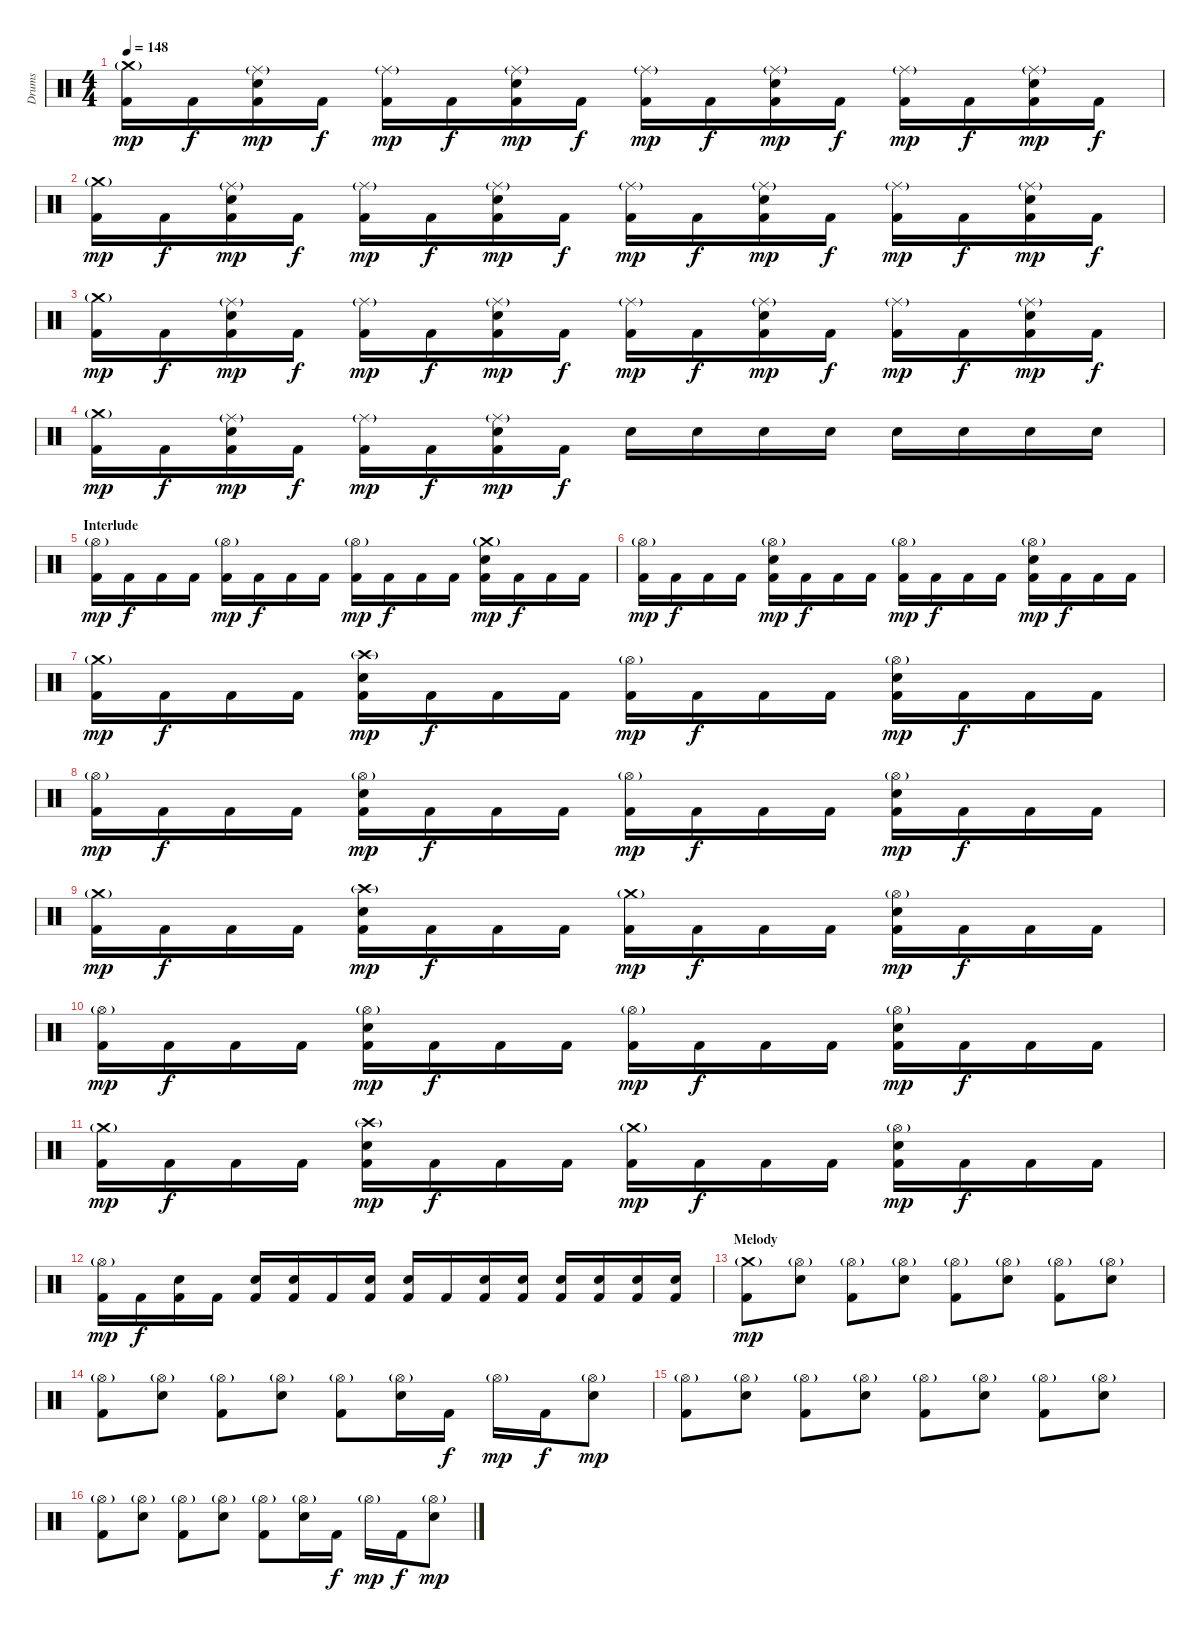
\track ("Drums" "Drums") {instrument percussion}
\staff {score}
\articulation defaults
\ts (4 4)
\tempo 148
\clef neutral
\ks c
("Crash medium (hit)"{g} "Kick (hit) 2").16{dy mp} "Kick (hit) 2".16{dy f} ("Ride (middle)"{g} "Snare (hit) 2" "Kick (hit) 2").16{dy mp} "Kick (hit) 2".16{dy f} ("Ride (middle)"{g} "Kick (hit) 2").16{dy mp} "Kick (hit) 2".16{dy f} ("Ride (middle)"{g} "Snare (hit) 2" "Kick (hit) 2").16{dy mp} "Kick (hit) 2".16{dy f} ("Ride (middle)"{g} "Kick (hit) 2").16{dy mp} "Kick (hit) 2".16{dy f} ("Ride (middle)"{g} "Snare (hit) 2" "Kick (hit) 2").16{dy mp} "Kick (hit) 2".16{dy f} ("Ride (middle)"{g} "Kick (hit) 2").16{dy mp} "Kick (hit) 2".16{dy f} ("Ride (middle)"{g} "Snare (hit) 2" "Kick (hit) 2").16{dy mp} "Kick (hit) 2".16{dy f} |
("Crash medium (hit)"{g} "Kick (hit) 2").16{dy mp} "Kick (hit) 2".16{dy f} ("Ride (middle)"{g} "Snare (hit) 2" "Kick (hit) 2").16{dy mp} "Kick (hit) 2".16{dy f} ("Ride (middle)"{g} "Kick (hit) 2").16{dy mp} "Kick (hit) 2".16{dy f} ("Ride (middle)"{g} "Snare (hit) 2" "Kick (hit) 2").16{dy mp} "Kick (hit) 2".16{dy f} ("Ride (middle)"{g} "Kick (hit) 2").16{dy mp} "Kick (hit) 2".16{dy f} ("Ride (middle)"{g} "Snare (hit) 2" "Kick (hit) 2").16{dy mp} "Kick (hit) 2".16{dy f} ("Ride (middle)"{g} "Kick (hit) 2").16{dy mp} "Kick (hit) 2".16{dy f} ("Ride (middle)"{g} "Snare (hit) 2" "Kick (hit) 2").16{dy mp} "Kick (hit) 2".16{dy f} |
("Crash medium (hit)"{g} "Kick (hit) 2").16{dy mp} "Kick (hit) 2".16{dy f} ("Ride (middle)"{g} "Snare (hit) 2" "Kick (hit) 2").16{dy mp} "Kick (hit) 2".16{dy f} ("Ride (middle)"{g} "Kick (hit) 2").16{dy mp} "Kick (hit) 2".16{dy f} ("Ride (middle)"{g} "Snare (hit) 2" "Kick (hit) 2").16{dy mp} "Kick (hit) 2".16{dy f} ("Ride (middle)"{g} "Kick (hit) 2").16{dy mp} "Kick (hit) 2".16{dy f} ("Ride (middle)"{g} "Snare (hit) 2" "Kick (hit) 2").16{dy mp} "Kick (hit) 2".16{dy f} ("Ride (middle)"{g} "Kick (hit) 2").16{dy mp} "Kick (hit) 2".16{dy f} ("Ride (middle)"{g} "Snare (hit) 2" "Kick (hit) 2").16{dy mp} "Kick (hit) 2".16{dy f} |
("Crash medium (hit)"{g} "Kick (hit) 2").16{dy mp} "Kick (hit) 2".16{dy f} ("Ride (middle)"{g} "Snare (hit) 2" "Kick (hit) 2").16{dy mp} "Kick (hit) 2".16{dy f} ("Ride (middle)"{g} "Kick (hit) 2").16{dy mp} "Kick (hit) 2".16{dy f} ("Ride (middle)"{g} "Snare (hit) 2" "Kick (hit) 2").16{dy mp} "Kick (hit) 2".16{dy f} "Snare (hit) 2".16 "Snare (hit) 2".16 "Snare (hit) 2".16 "Snare (hit) 2".16 "Snare (hit) 2".16 "Snare (hit) 2".16 "Snare (hit) 2".16 "Snare (hit) 2".16 |
\section ("" "Interlude")
("Hi-Hat (open)"{g} "Kick (hit) 2").16{dy mp} "Kick (hit) 2".16{dy f} "Kick (hit) 2".16 "Kick (hit) 2".16 ("Hi-Hat (open)"{g} "Kick (hit) 2").16{dy mp} "Kick (hit) 2".16{dy f} "Kick (hit) 2".16 "Kick (hit) 2".16 ("Hi-Hat (open)"{g} "Kick (hit) 2").16{dy mp} "Kick (hit) 2".16{dy f} "Kick (hit) 2".16 "Kick (hit) 2".16 ("Crash medium (hit)"{g} "Snare (hit) 2" "Kick (hit) 2").16{dy mp} "Kick (hit) 2".16{dy f} "Kick (hit) 2".16 "Kick (hit) 2".16 |
("Hi-Hat (open)"{g} "Kick (hit) 2").16{dy mp} "Kick (hit) 2".16{dy f} "Kick (hit) 2".16 "Kick (hit) 2".16 ("Hi-Hat (open)"{g} "Snare (hit) 2" "Kick (hit) 2").16{dy mp} "Kick (hit) 2".16{dy f} "Kick (hit) 2".16 "Kick (hit) 2".16 ("Hi-Hat (open)"{g} "Kick (hit) 2").16{dy mp} "Kick (hit) 2".16{dy f} "Kick (hit) 2".16 "Kick (hit) 2".16 ("Hi-Hat (open)"{g} "Snare (hit) 2" "Kick (hit) 2").16{dy mp} "Kick (hit) 2".16{dy f} "Kick (hit) 2".16 "Kick (hit) 2".16 |
("Crash medium (hit)"{g} "Kick (hit) 2").16{dy mp} "Kick (hit) 2".16{dy f} "Kick (hit) 2".16 "Kick (hit) 2".16 ("Crash high (hit)"{g} "Snare (hit) 2" "Kick (hit) 2").16{dy mp} "Kick (hit) 2".16{dy f} "Kick (hit) 2".16 "Kick (hit) 2".16 ("Hi-Hat (open)"{g} "Kick (hit) 2").16{dy mp} "Kick (hit) 2".16{dy f} "Kick (hit) 2".16 "Kick (hit) 2".16 ("Hi-Hat (open)"{g} "Snare (hit) 2" "Kick (hit) 2").16{dy mp} "Kick (hit) 2".16{dy f} "Kick (hit) 2".16 "Kick (hit) 2".16 |
("Hi-Hat (open)"{g} "Kick (hit) 2").16{dy mp} "Kick (hit) 2".16{dy f} "Kick (hit) 2".16 "Kick (hit) 2".16 ("Hi-Hat (open)"{g} "Snare (hit) 2" "Kick (hit) 2").16{dy mp} "Kick (hit) 2".16{dy f} "Kick (hit) 2".16 "Kick (hit) 2".16 ("Hi-Hat (open)"{g} "Kick (hit) 2").16{dy mp} "Kick (hit) 2".16{dy f} "Kick (hit) 2".16 "Kick (hit) 2".16 ("Hi-Hat (open)"{g} "Snare (hit) 2" "Kick (hit) 2").16{dy mp} "Kick (hit) 2".16{dy f} "Kick (hit) 2".16 "Kick (hit) 2".16 |
("Crash medium (hit)"{g} "Kick (hit) 2").16{dy mp} "Kick (hit) 2".16{dy f} "Kick (hit) 2".16 "Kick (hit) 2".16 ("Crash high (hit)"{g} "Snare (hit) 2" "Kick (hit) 2").16{dy mp} "Kick (hit) 2".16{dy f} "Kick (hit) 2".16 "Kick (hit) 2".16 ("Crash medium (hit)"{g} "Kick (hit) 2").16{dy mp} "Kick (hit) 2".16{dy f} "Kick (hit) 2".16 "Kick (hit) 2".16 ("Hi-Hat (open)"{g} "Snare (hit) 2" "Kick (hit) 2").16{dy mp} "Kick (hit) 2".16{dy f} "Kick (hit) 2".16 "Kick (hit) 2".16 |
("Hi-Hat (open)"{g} "Kick (hit) 2").16{dy mp} "Kick (hit) 2".16{dy f} "Kick (hit) 2".16 "Kick (hit) 2".16 ("Hi-Hat (open)"{g} "Snare (hit) 2" "Kick (hit) 2").16{dy mp} "Kick (hit) 2".16{dy f} "Kick (hit) 2".16 "Kick (hit) 2".16 ("Hi-Hat (open)"{g} "Kick (hit) 2").16{dy mp} "Kick (hit) 2".16{dy f} "Kick (hit) 2".16 "Kick (hit) 2".16 ("Hi-Hat (open)"{g} "Snare (hit) 2" "Kick (hit) 2").16{dy mp} "Kick (hit) 2".16{dy f} "Kick (hit) 2".16 "Kick (hit) 2".16 |
("Crash medium (hit)"{g} "Kick (hit) 2").16{dy mp} "Kick (hit) 2".16{dy f} "Kick (hit) 2".16 "Kick (hit) 2".16 ("Crash high (hit)"{g} "Snare (hit) 2" "Kick (hit) 2").16{dy mp} "Kick (hit) 2".16{dy f} "Kick (hit) 2".16 "Kick (hit) 2".16 ("Crash medium (hit)"{g} "Kick (hit) 2").16{dy mp} "Kick (hit) 2".16{dy f} "Kick (hit) 2".16 "Kick (hit) 2".16 ("Hi-Hat (open)"{g} "Snare (hit) 2" "Kick (hit) 2").16{dy mp} "Kick (hit) 2".16{dy f} "Kick (hit) 2".16 "Kick (hit) 2".16 |
("Hi-Hat (open)"{g} "Kick (hit) 2").16{dy mp} "Kick (hit) 2".16{dy f} ("Snare (hit) 2" "Kick (hit) 2").16 "Kick (hit) 2".16 ("Snare (hit) 2" "Kick (hit) 2").16 ("Snare (hit) 2" "Kick (hit) 2").16 "Kick (hit) 2".16 ("Snare (hit) 2" "Kick (hit) 2").16 ("Snare (hit) 2" "Kick (hit) 2").16 "Kick (hit) 2".16 ("Snare (hit) 2" "Kick (hit) 2").16 ("Snare (hit) 2" "Kick (hit) 2").16 ("Snare (hit) 2" "Kick (hit) 2").16 ("Snare (hit) 2" "Kick (hit) 2").16 ("Snare (hit) 2" "Kick (hit) 2").16 ("Snare (hit) 2" "Kick (hit) 2").16 |
\section ("" "Melody")
("Crash medium (hit)"{g} "Kick (hit) 2").8{dy mp} ("Hi-Hat (open)"{g} "Snare (hit) 2").8 ("Hi-Hat (open)"{g} "Kick (hit) 2").8 ("Hi-Hat (open)"{g} "Snare (hit) 2").8 ("Hi-Hat (open)"{g} "Kick (hit) 2").8 ("Hi-Hat (open)"{g} "Snare (hit) 2").8 ("Hi-Hat (open)"{g} "Kick (hit) 2").8 ("Hi-Hat (open)"{g} "Snare (hit) 2").8 |
("Hi-Hat (open)"{g} "Kick (hit) 2").8 ("Hi-Hat (open)"{g} "Snare (hit) 2").8 ("Hi-Hat (open)"{g} "Kick (hit) 2").8 ("Hi-Hat (open)"{g} "Snare (hit) 2").8 ("Hi-Hat (open)"{g} "Kick (hit) 2").8 ("Hi-Hat (open)"{g} "Snare (hit) 2").16 "Kick (hit) 2".16{dy f} "Hi-Hat (open)"{g}.16{dy mp} "Kick (hit) 2".16{dy f} ("Hi-Hat (open)"{g} "Snare (hit) 2").8{dy mp} |
("Hi-Hat (open)"{g} "Kick (hit) 2").8 ("Hi-Hat (open)"{g} "Snare (hit) 2").8 ("Hi-Hat (open)"{g} "Kick (hit) 2").8 ("Hi-Hat (open)"{g} "Snare (hit) 2").8 ("Hi-Hat (open)"{g} "Kick (hit) 2").8 ("Hi-Hat (open)"{g} "Snare (hit) 2").8 ("Hi-Hat (open)"{g} "Kick (hit) 2").8 ("Hi-Hat (open)"{g} "Snare (hit) 2").8 |
("Hi-Hat (open)"{g} "Kick (hit) 2").8 ("Hi-Hat (open)"{g} "Snare (hit) 2").8 ("Hi-Hat (open)"{g} "Kick (hit) 2").8 ("Hi-Hat (open)"{g} "Snare (hit) 2").8 ("Hi-Hat (open)"{g} "Kick (hit) 2").8 ("Hi-Hat (open)"{g} "Snare (hit) 2").16 "Kick (hit) 2".16{dy f} "Hi-Hat (open)"{g}.16{dy mp} "Kick (hit) 2".16{dy f} ("Hi-Hat (open)"{g} "Snare (hit) 2").8{dy mp}
